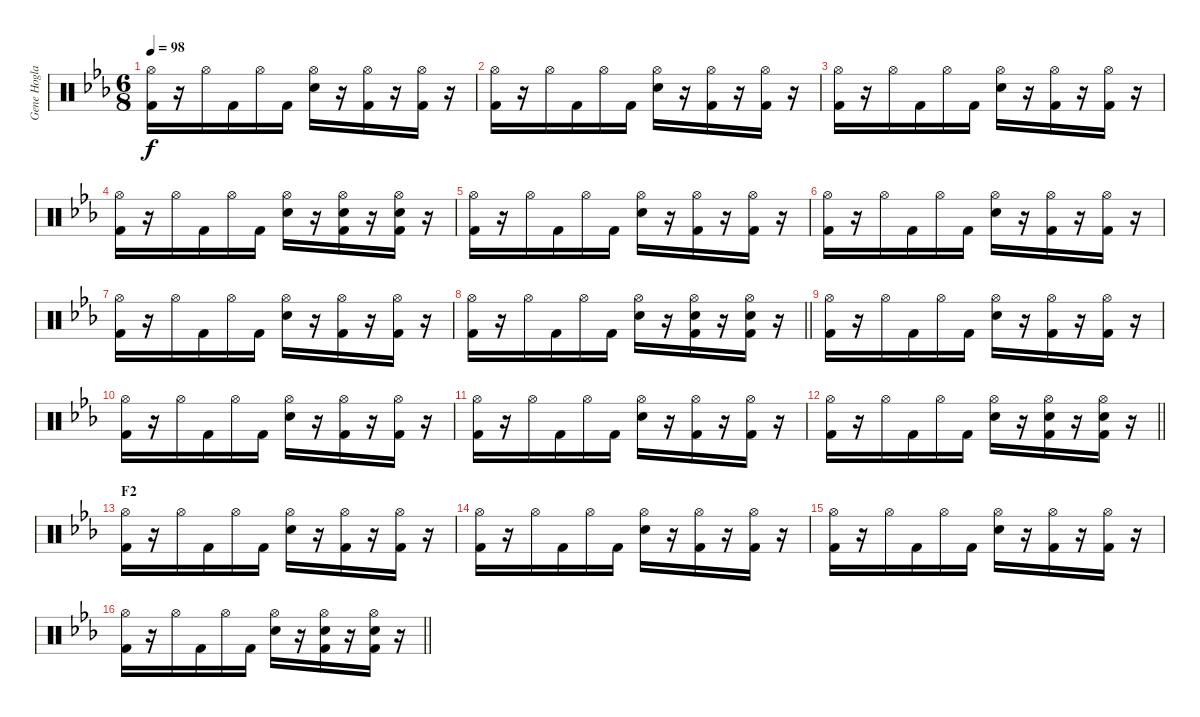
\track ("Gene Hogland" "Gene Hogla") {instrument percussion}
\staff {score}
\articulation defaults
\ts (6 8)
\tempo 98
\clef neutral
\ks eb
("Hi-Hat (open)" "Kick (hit) 2").16{dy f} r.16 "Hi-Hat (open)".16 "Kick (hit) 2".16 "Hi-Hat (open)".16 "Kick (hit) 2".16 ("Hi-Hat (open)" "Electric Snare (hit)").16 r.16 ("Hi-Hat (open)" "Kick (hit) 2").16 r.16 ("Hi-Hat (open)" "Kick (hit) 2").16 r.16 |
("Hi-Hat (open)" "Kick (hit) 2").16 r.16 "Hi-Hat (open)".16 "Kick (hit) 2".16 "Hi-Hat (open)".16 "Kick (hit) 2".16 ("Hi-Hat (open)" "Electric Snare (hit)").16 r.16 ("Hi-Hat (open)" "Kick (hit) 2").16 r.16 ("Hi-Hat (open)" "Kick (hit) 2").16 r.16 |
("Hi-Hat (open)" "Kick (hit) 2").16 r.16 "Hi-Hat (open)".16 "Kick (hit) 2".16 "Hi-Hat (open)".16 "Kick (hit) 2".16 ("Hi-Hat (open)" "Electric Snare (hit)").16 r.16 ("Hi-Hat (open)" "Kick (hit) 2").16 r.16 ("Hi-Hat (open)" "Kick (hit) 2").16 r.16 |
("Hi-Hat (open)" "Kick (hit) 2").16 r.16 "Hi-Hat (open)".16 "Kick (hit) 2".16 "Hi-Hat (open)".16 "Kick (hit) 2".16 ("Hi-Hat (open)" "Electric Snare (hit)").16 r.16 ("Hi-Hat (open)" "Electric Snare (hit)" "Kick (hit) 2").16 r.16 ("Hi-Hat (open)" "Electric Snare (hit)" "Kick (hit) 2").16 r.16 |
("Hi-Hat (open)" "Kick (hit) 2").16 r.16 "Hi-Hat (open)".16 "Kick (hit) 2".16 "Hi-Hat (open)".16 "Kick (hit) 2".16 ("Hi-Hat (open)" "Electric Snare (hit)").16 r.16 ("Hi-Hat (open)" "Kick (hit) 2").16 r.16 ("Hi-Hat (open)" "Kick (hit) 2").16 r.16 |
("Hi-Hat (open)" "Kick (hit) 2").16 r.16 "Hi-Hat (open)".16 "Kick (hit) 2".16 "Hi-Hat (open)".16 "Kick (hit) 2".16 ("Hi-Hat (open)" "Electric Snare (hit)").16 r.16 ("Hi-Hat (open)" "Kick (hit) 2").16 r.16 ("Hi-Hat (open)" "Kick (hit) 2").16 r.16 |
("Hi-Hat (open)" "Kick (hit) 2").16 r.16 "Hi-Hat (open)".16 "Kick (hit) 2".16 "Hi-Hat (open)".16 "Kick (hit) 2".16 ("Hi-Hat (open)" "Electric Snare (hit)").16 r.16 ("Hi-Hat (open)" "Kick (hit) 2").16 r.16 ("Hi-Hat (open)" "Kick (hit) 2").16 r.16 |
\barLineRight lightlight
("Hi-Hat (open)" "Kick (hit) 2").16 r.16 "Hi-Hat (open)".16 "Kick (hit) 2".16 "Hi-Hat (open)".16 "Kick (hit) 2".16 ("Hi-Hat (open)" "Electric Snare (hit)").16 r.16 ("Hi-Hat (open)" "Electric Snare (hit)" "Kick (hit) 2").16 r.16 ("Hi-Hat (open)" "Electric Snare (hit)" "Kick (hit) 2").16 r.16 |
\section ("" "")
("Hi-Hat (open)" "Kick (hit) 2").16 r.16 "Hi-Hat (open)".16 "Kick (hit) 2".16 "Hi-Hat (open)".16 "Kick (hit) 2".16 ("Hi-Hat (open)" "Electric Snare (hit)").16 r.16 ("Hi-Hat (open)" "Kick (hit) 2").16 r.16 ("Hi-Hat (open)" "Kick (hit) 2").16 r.16 |
("Hi-Hat (open)" "Kick (hit) 2").16 r.16 "Hi-Hat (open)".16 "Kick (hit) 2".16 "Hi-Hat (open)".16 "Kick (hit) 2".16 ("Hi-Hat (open)" "Electric Snare (hit)").16 r.16 ("Hi-Hat (open)" "Kick (hit) 2").16 r.16 ("Hi-Hat (open)" "Kick (hit) 2").16 r.16 |
("Hi-Hat (open)" "Kick (hit) 2").16 r.16 "Hi-Hat (open)".16 "Kick (hit) 2".16 "Hi-Hat (open)".16 "Kick (hit) 2".16 ("Hi-Hat (open)" "Electric Snare (hit)").16 r.16 ("Hi-Hat (open)" "Kick (hit) 2").16 r.16 ("Hi-Hat (open)" "Kick (hit) 2").16 r.16 |
\barLineRight lightlight
("Hi-Hat (open)" "Kick (hit) 2").16 r.16 "Hi-Hat (open)".16 "Kick (hit) 2".16 "Hi-Hat (open)".16 "Kick (hit) 2".16 ("Hi-Hat (open)" "Electric Snare (hit)").16 r.16 ("Hi-Hat (open)" "Electric Snare (hit)" "Kick (hit) 2").16 r.16 ("Hi-Hat (open)" "Electric Snare (hit)" "Kick (hit) 2").16 r.16 |
\section ("" "F2")
("Hi-Hat (open)" "Kick (hit) 2").16 r.16 "Hi-Hat (open)".16 "Kick (hit) 2".16 "Hi-Hat (open)".16 "Kick (hit) 2".16 ("Hi-Hat (open)" "Electric Snare (hit)").16 r.16 ("Hi-Hat (open)" "Kick (hit) 2").16 r.16 ("Hi-Hat (open)" "Kick (hit) 2").16 r.16 |
("Hi-Hat (open)" "Kick (hit) 2").16 r.16 "Hi-Hat (open)".16 "Kick (hit) 2".16 "Hi-Hat (open)".16 "Kick (hit) 2".16 ("Hi-Hat (open)" "Electric Snare (hit)").16 r.16 ("Hi-Hat (open)" "Kick (hit) 2").16 r.16 ("Hi-Hat (open)" "Kick (hit) 2").16 r.16 |
("Hi-Hat (open)" "Kick (hit) 2").16 r.16 "Hi-Hat (open)".16 "Kick (hit) 2".16 "Hi-Hat (open)".16 "Kick (hit) 2".16 ("Hi-Hat (open)" "Electric Snare (hit)").16 r.16 ("Hi-Hat (open)" "Kick (hit) 2").16 r.16 ("Hi-Hat (open)" "Kick (hit) 2").16 r.16 |
\barLineRight lightlight
("Hi-Hat (open)" "Kick (hit) 2").16 r.16 "Hi-Hat (open)".16 "Kick (hit) 2".16 "Hi-Hat (open)".16 "Kick (hit) 2".16 ("Hi-Hat (open)" "Electric Snare (hit)").16 r.16 ("Hi-Hat (open)" "Electric Snare (hit)" "Kick (hit) 2").16 r.16 ("Hi-Hat (open)" "Electric Snare (hit)" "Kick (hit) 2").16 r.16
